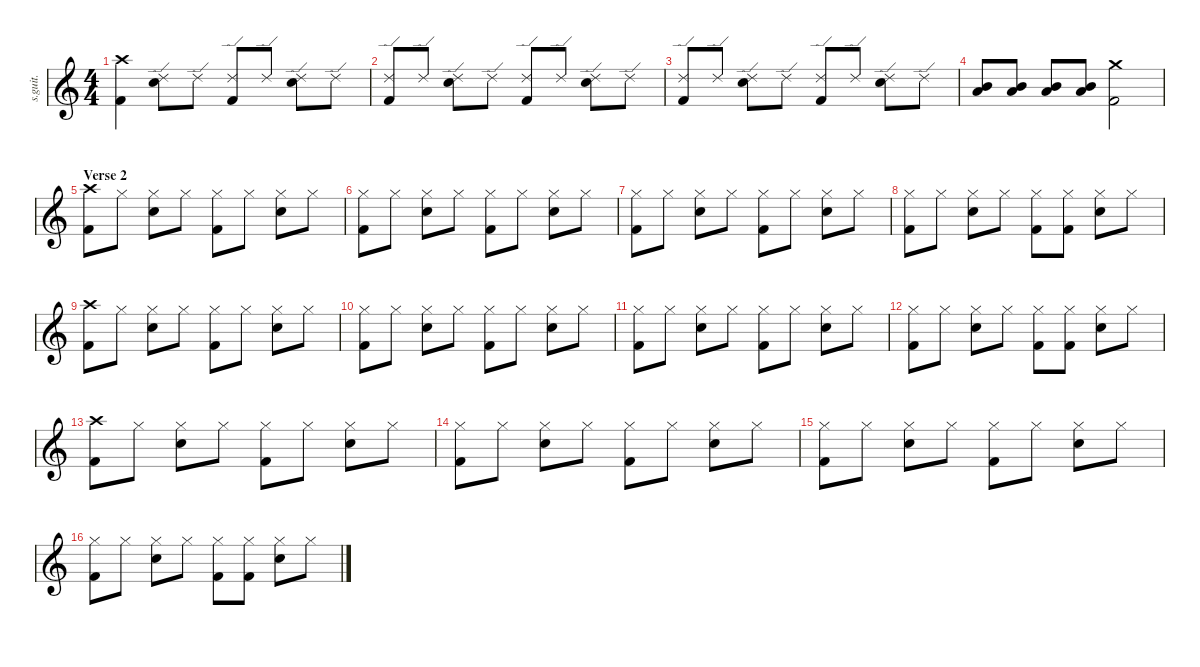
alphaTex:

\defaultSystemsLayout 4
\hideDynamics
\bracketExtendMode nobrackets
\track ("Nick Menza" "s.guit.") {instrument percussion}
\staff {score}
\articulation defaults
\ts (4 4)
\tempo (140 hide)
\clef g2
\ks c
("Crash high (hit)" "Kick (hit) 2").4{lyrics (0 "") lyrics (1 "") lyrics (2 "") lyrics (3 "") lyrics (4 "") dy f} ("Ride (edge) 2" "Snare (hit) 2").8{lyrics (0 "") lyrics (1 "") lyrics (2 "") lyrics (3 "") lyrics (4 "")} "Ride (edge) 2".8{lyrics (0 "") lyrics (1 "") lyrics (2 "") lyrics (3 "") lyrics (4 "")} ("Ride (edge) 2" "Kick (hit) 2").8{lyrics (0 "") lyrics (1 "") lyrics (2 "") lyrics (3 "") lyrics (4 "")} "Ride (edge) 2".8{lyrics (0 "") lyrics (1 "") lyrics (2 "") lyrics (3 "") lyrics (4 "")} ("Ride (edge) 2" "Snare (hit) 2").8{lyrics (0 "") lyrics (1 "") lyrics (2 "") lyrics (3 "") lyrics (4 "")} "Ride (edge) 2".8{lyrics (0 "") lyrics (1 "") lyrics (2 "") lyrics (3 "") lyrics (4 "")} |
("Ride (edge) 2" "Kick (hit) 2").8{lyrics (0 "") lyrics (1 "") lyrics (2 "") lyrics (3 "") lyrics (4 "")} "Ride (edge) 2".8{lyrics (0 "") lyrics (1 "") lyrics (2 "") lyrics (3 "") lyrics (4 "")} ("Ride (edge) 2" "Snare (hit) 2").8{lyrics (0 "") lyrics (1 "") lyrics (2 "") lyrics (3 "") lyrics (4 "")} "Ride (edge) 2".8{lyrics (0 "") lyrics (1 "") lyrics (2 "") lyrics (3 "") lyrics (4 "")} ("Ride (edge) 2" "Kick (hit) 2").8{lyrics (0 "") lyrics (1 "") lyrics (2 "") lyrics (3 "") lyrics (4 "")} "Ride (edge) 2".8{lyrics (0 "") lyrics (1 "") lyrics (2 "") lyrics (3 "") lyrics (4 "")} ("Ride (edge) 2" "Snare (hit) 2").8{lyrics (0 "") lyrics (1 "") lyrics (2 "") lyrics (3 "") lyrics (4 "")} "Ride (edge) 2".8{lyrics (0 "") lyrics (1 "") lyrics (2 "") lyrics (3 "") lyrics (4 "")} |
("Ride (edge) 2" "Kick (hit) 2").8{lyrics (0 "") lyrics (1 "") lyrics (2 "") lyrics (3 "") lyrics (4 "")} "Ride (edge) 2".8{lyrics (0 "") lyrics (1 "") lyrics (2 "") lyrics (3 "") lyrics (4 "")} ("Ride (edge) 2" "Snare (hit) 2").8{lyrics (0 "") lyrics (1 "") lyrics (2 "") lyrics (3 "") lyrics (4 "")} "Ride (edge) 2".8{lyrics (0 "") lyrics (1 "") lyrics (2 "") lyrics (3 "") lyrics (4 "")} ("Ride (edge) 2" "Kick (hit) 2").8{lyrics (0 "") lyrics (1 "") lyrics (2 "") lyrics (3 "") lyrics (4 "")} "Ride (edge) 2".8{lyrics (0 "") lyrics (1 "") lyrics (2 "") lyrics (3 "") lyrics (4 "")} ("Ride (edge) 2" "Snare (hit) 2").8{lyrics (0 "") lyrics (1 "") lyrics (2 "") lyrics (3 "") lyrics (4 "")} "Ride (edge) 2".8{lyrics (0 "") lyrics (1 "") lyrics (2 "") lyrics (3 "") lyrics (4 "")} |
("Mid Tom (hit)" "Low Tom (hit)").8{lyrics (0 "") lyrics (1 "") lyrics (2 "") lyrics (3 "") lyrics (4 "")} ("Mid Tom (hit)" "Low Tom (hit)").8{lyrics (0 "") lyrics (1 "") lyrics (2 "") lyrics (3 "") lyrics (4 "")} ("Mid Tom (hit)" "Low Tom (hit)").8{lyrics (0 "") lyrics (1 "") lyrics (2 "") lyrics (3 "") lyrics (4 "")} ("Mid Tom (hit)" "Low Tom (hit)").8{lyrics (0 "") lyrics (1 "") lyrics (2 "") lyrics (3 "") lyrics (4 "")} ("Crash medium (hit)" "Kick (hit) 2").2{lyrics (0 "") lyrics (1 "") lyrics (2 "") lyrics (3 "") lyrics (4 "")} |
\section ("" "Verse 2")
("Crash high (hit)" "Kick (hit) 2").8{lyrics (0 "") lyrics (1 "") lyrics (2 "") lyrics (3 "") lyrics (4 "")} "Hi-Hat (closed)".8{lyrics (0 "") lyrics (1 "") lyrics (2 "") lyrics (3 "") lyrics (4 "")} ("Hi-Hat (closed)" "Snare (hit) 2").8{lyrics (0 "") lyrics (1 "") lyrics (2 "") lyrics (3 "") lyrics (4 "")} "Hi-Hat (closed)".8{lyrics (0 "") lyrics (1 "") lyrics (2 "") lyrics (3 "") lyrics (4 "")} ("Hi-Hat (closed)" "Kick (hit) 2").8{lyrics (0 "") lyrics (1 "") lyrics (2 "") lyrics (3 "") lyrics (4 "")} "Hi-Hat (closed)".8{lyrics (0 "") lyrics (1 "") lyrics (2 "") lyrics (3 "") lyrics (4 "")} ("Hi-Hat (closed)" "Snare (hit) 2").8{lyrics (0 "") lyrics (1 "") lyrics (2 "") lyrics (3 "") lyrics (4 "")} "Hi-Hat (closed)".8{lyrics (0 "") lyrics (1 "") lyrics (2 "") lyrics (3 "") lyrics (4 "")} |
("Hi-Hat (closed)" "Kick (hit) 2").8{lyrics (0 "") lyrics (1 "") lyrics (2 "") lyrics (3 "") lyrics (4 "")} "Hi-Hat (closed)".8{lyrics (0 "") lyrics (1 "") lyrics (2 "") lyrics (3 "") lyrics (4 "")} ("Hi-Hat (closed)" "Snare (hit) 2").8{lyrics (0 "") lyrics (1 "") lyrics (2 "") lyrics (3 "") lyrics (4 "")} "Hi-Hat (closed)".8{lyrics (0 "") lyrics (1 "") lyrics (2 "") lyrics (3 "") lyrics (4 "")} ("Hi-Hat (closed)" "Kick (hit) 2").8{lyrics (0 "") lyrics (1 "") lyrics (2 "") lyrics (3 "") lyrics (4 "")} "Hi-Hat (closed)".8{lyrics (0 "") lyrics (1 "") lyrics (2 "") lyrics (3 "") lyrics (4 "")} ("Hi-Hat (closed)" "Snare (hit) 2").8{lyrics (0 "") lyrics (1 "") lyrics (2 "") lyrics (3 "") lyrics (4 "")} "Hi-Hat (closed)".8{lyrics (0 "") lyrics (1 "") lyrics (2 "") lyrics (3 "") lyrics (4 "")} |
("Hi-Hat (closed)" "Kick (hit) 2").8{lyrics (0 "") lyrics (1 "") lyrics (2 "") lyrics (3 "") lyrics (4 "")} "Hi-Hat (closed)".8{lyrics (0 "") lyrics (1 "") lyrics (2 "") lyrics (3 "") lyrics (4 "")} ("Hi-Hat (closed)" "Snare (hit) 2").8{lyrics (0 "") lyrics (1 "") lyrics (2 "") lyrics (3 "") lyrics (4 "")} "Hi-Hat (closed)".8{lyrics (0 "") lyrics (1 "") lyrics (2 "") lyrics (3 "") lyrics (4 "")} ("Hi-Hat (closed)" "Kick (hit) 2").8{lyrics (0 "") lyrics (1 "") lyrics (2 "") lyrics (3 "") lyrics (4 "")} "Hi-Hat (closed)".8{lyrics (0 "") lyrics (1 "") lyrics (2 "") lyrics (3 "") lyrics (4 "")} ("Hi-Hat (closed)" "Snare (hit) 2").8{lyrics (0 "") lyrics (1 "") lyrics (2 "") lyrics (3 "") lyrics (4 "")} "Hi-Hat (closed)".8{lyrics (0 "") lyrics (1 "") lyrics (2 "") lyrics (3 "") lyrics (4 "")} |
("Hi-Hat (closed)" "Kick (hit) 2").8{lyrics (0 "") lyrics (1 "") lyrics (2 "") lyrics (3 "") lyrics (4 "")} "Hi-Hat (closed)".8{lyrics (0 "") lyrics (1 "") lyrics (2 "") lyrics (3 "") lyrics (4 "")} ("Hi-Hat (closed)" "Snare (hit) 2").8{lyrics (0 "") lyrics (1 "") lyrics (2 "") lyrics (3 "") lyrics (4 "")} "Hi-Hat (closed)".8{lyrics (0 "") lyrics (1 "") lyrics (2 "") lyrics (3 "") lyrics (4 "")} ("Hi-Hat (closed)" "Kick (hit) 2").8{lyrics (0 "") lyrics (1 "") lyrics (2 "") lyrics (3 "") lyrics (4 "")} ("Hi-Hat (closed)" "Kick (hit) 2").8{lyrics (0 "") lyrics (1 "") lyrics (2 "") lyrics (3 "") lyrics (4 "")} ("Hi-Hat (closed)" "Snare (hit) 2").8{lyrics (0 "") lyrics (1 "") lyrics (2 "") lyrics (3 "") lyrics (4 "")} "Hi-Hat (closed)".8{lyrics (0 "") lyrics (1 "") lyrics (2 "") lyrics (3 "") lyrics (4 "")} |
("Crash high (hit)" "Kick (hit) 2").8{lyrics (0 "") lyrics (1 "") lyrics (2 "") lyrics (3 "") lyrics (4 "")} "Hi-Hat (closed)".8{lyrics (0 "") lyrics (1 "") lyrics (2 "") lyrics (3 "") lyrics (4 "")} ("Hi-Hat (closed)" "Snare (hit) 2").8{lyrics (0 "") lyrics (1 "") lyrics (2 "") lyrics (3 "") lyrics (4 "")} "Hi-Hat (closed)".8{lyrics (0 "") lyrics (1 "") lyrics (2 "") lyrics (3 "") lyrics (4 "")} ("Hi-Hat (closed)" "Kick (hit) 2").8{lyrics (0 "") lyrics (1 "") lyrics (2 "") lyrics (3 "") lyrics (4 "")} "Hi-Hat (closed)".8{lyrics (0 "") lyrics (1 "") lyrics (2 "") lyrics (3 "") lyrics (4 "")} ("Hi-Hat (closed)" "Snare (hit) 2").8{lyrics (0 "") lyrics (1 "") lyrics (2 "") lyrics (3 "") lyrics (4 "")} "Hi-Hat (closed)".8{lyrics (0 "") lyrics (1 "") lyrics (2 "") lyrics (3 "") lyrics (4 "")} |
("Hi-Hat (closed)" "Kick (hit) 2").8{lyrics (0 "") lyrics (1 "") lyrics (2 "") lyrics (3 "") lyrics (4 "")} "Hi-Hat (closed)".8{lyrics (0 "") lyrics (1 "") lyrics (2 "") lyrics (3 "") lyrics (4 "")} ("Hi-Hat (closed)" "Snare (hit) 2").8{lyrics (0 "") lyrics (1 "") lyrics (2 "") lyrics (3 "") lyrics (4 "")} "Hi-Hat (closed)".8{lyrics (0 "") lyrics (1 "") lyrics (2 "") lyrics (3 "") lyrics (4 "")} ("Hi-Hat (closed)" "Kick (hit) 2").8{lyrics (0 "") lyrics (1 "") lyrics (2 "") lyrics (3 "") lyrics (4 "")} "Hi-Hat (closed)".8{lyrics (0 "") lyrics (1 "") lyrics (2 "") lyrics (3 "") lyrics (4 "")} ("Hi-Hat (closed)" "Snare (hit) 2").8{lyrics (0 "") lyrics (1 "") lyrics (2 "") lyrics (3 "") lyrics (4 "")} "Hi-Hat (closed)".8{lyrics (0 "") lyrics (1 "") lyrics (2 "") lyrics (3 "") lyrics (4 "")} |
("Hi-Hat (closed)" "Kick (hit) 2").8{lyrics (0 "") lyrics (1 "") lyrics (2 "") lyrics (3 "") lyrics (4 "")} "Hi-Hat (closed)".8{lyrics (0 "") lyrics (1 "") lyrics (2 "") lyrics (3 "") lyrics (4 "")} ("Hi-Hat (closed)" "Snare (hit) 2").8{lyrics (0 "") lyrics (1 "") lyrics (2 "") lyrics (3 "") lyrics (4 "")} "Hi-Hat (closed)".8{lyrics (0 "") lyrics (1 "") lyrics (2 "") lyrics (3 "") lyrics (4 "")} ("Hi-Hat (closed)" "Kick (hit) 2").8{lyrics (0 "") lyrics (1 "") lyrics (2 "") lyrics (3 "") lyrics (4 "")} "Hi-Hat (closed)".8{lyrics (0 "") lyrics (1 "") lyrics (2 "") lyrics (3 "") lyrics (4 "")} ("Hi-Hat (closed)" "Snare (hit) 2").8{lyrics (0 "") lyrics (1 "") lyrics (2 "") lyrics (3 "") lyrics (4 "")} "Hi-Hat (closed)".8{lyrics (0 "") lyrics (1 "") lyrics (2 "") lyrics (3 "") lyrics (4 "")} |
("Hi-Hat (closed)" "Kick (hit) 2").8{lyrics (0 "") lyrics (1 "") lyrics (2 "") lyrics (3 "") lyrics (4 "")} "Hi-Hat (closed)".8{lyrics (0 "") lyrics (1 "") lyrics (2 "") lyrics (3 "") lyrics (4 "")} ("Hi-Hat (closed)" "Snare (hit) 2").8{lyrics (0 "") lyrics (1 "") lyrics (2 "") lyrics (3 "") lyrics (4 "")} "Hi-Hat (closed)".8{lyrics (0 "") lyrics (1 "") lyrics (2 "") lyrics (3 "") lyrics (4 "")} ("Hi-Hat (closed)" "Kick (hit) 2").8{lyrics (0 "") lyrics (1 "") lyrics (2 "") lyrics (3 "") lyrics (4 "")} ("Hi-Hat (closed)" "Kick (hit) 2").8{lyrics (0 "") lyrics (1 "") lyrics (2 "") lyrics (3 "") lyrics (4 "")} ("Hi-Hat (closed)" "Snare (hit) 2").8{lyrics (0 "") lyrics (1 "") lyrics (2 "") lyrics (3 "") lyrics (4 "")} "Hi-Hat (closed)".8{lyrics (0 "") lyrics (1 "") lyrics (2 "") lyrics (3 "") lyrics (4 "")} |
("Crash high (hit)" "Kick (hit) 2").8{lyrics (0 "") lyrics (1 "") lyrics (2 "") lyrics (3 "") lyrics (4 "")} "Hi-Hat (closed)".8{lyrics (0 "") lyrics (1 "") lyrics (2 "") lyrics (3 "") lyrics (4 "")} ("Hi-Hat (closed)" "Snare (hit) 2").8{lyrics (0 "") lyrics (1 "") lyrics (2 "") lyrics (3 "") lyrics (4 "")} "Hi-Hat (closed)".8{lyrics (0 "") lyrics (1 "") lyrics (2 "") lyrics (3 "") lyrics (4 "")} ("Hi-Hat (closed)" "Kick (hit) 2").8{lyrics (0 "") lyrics (1 "") lyrics (2 "") lyrics (3 "") lyrics (4 "")} "Hi-Hat (closed)".8{lyrics (0 "") lyrics (1 "") lyrics (2 "") lyrics (3 "") lyrics (4 "")} ("Hi-Hat (closed)" "Snare (hit) 2").8{lyrics (0 "") lyrics (1 "") lyrics (2 "") lyrics (3 "") lyrics (4 "")} "Hi-Hat (closed)".8{lyrics (0 "") lyrics (1 "") lyrics (2 "") lyrics (3 "") lyrics (4 "")} |
("Hi-Hat (closed)" "Kick (hit) 2").8{lyrics (0 "") lyrics (1 "") lyrics (2 "") lyrics (3 "") lyrics (4 "")} "Hi-Hat (closed)".8{lyrics (0 "") lyrics (1 "") lyrics (2 "") lyrics (3 "") lyrics (4 "")} ("Hi-Hat (closed)" "Snare (hit) 2").8{lyrics (0 "") lyrics (1 "") lyrics (2 "") lyrics (3 "") lyrics (4 "")} "Hi-Hat (closed)".8{lyrics (0 "") lyrics (1 "") lyrics (2 "") lyrics (3 "") lyrics (4 "")} ("Hi-Hat (closed)" "Kick (hit) 2").8{lyrics (0 "") lyrics (1 "") lyrics (2 "") lyrics (3 "") lyrics (4 "")} "Hi-Hat (closed)".8{lyrics (0 "") lyrics (1 "") lyrics (2 "") lyrics (3 "") lyrics (4 "")} ("Hi-Hat (closed)" "Snare (hit) 2").8{lyrics (0 "") lyrics (1 "") lyrics (2 "") lyrics (3 "") lyrics (4 "")} "Hi-Hat (closed)".8{lyrics (0 "") lyrics (1 "") lyrics (2 "") lyrics (3 "") lyrics (4 "")} |
("Hi-Hat (closed)" "Kick (hit) 2").8{lyrics (0 "") lyrics (1 "") lyrics (2 "") lyrics (3 "") lyrics (4 "")} "Hi-Hat (closed)".8{lyrics (0 "") lyrics (1 "") lyrics (2 "") lyrics (3 "") lyrics (4 "")} ("Hi-Hat (closed)" "Snare (hit) 2").8{lyrics (0 "") lyrics (1 "") lyrics (2 "") lyrics (3 "") lyrics (4 "")} "Hi-Hat (closed)".8{lyrics (0 "") lyrics (1 "") lyrics (2 "") lyrics (3 "") lyrics (4 "")} ("Hi-Hat (closed)" "Kick (hit) 2").8{lyrics (0 "") lyrics (1 "") lyrics (2 "") lyrics (3 "") lyrics (4 "")} "Hi-Hat (closed)".8{lyrics (0 "") lyrics (1 "") lyrics (2 "") lyrics (3 "") lyrics (4 "")} ("Hi-Hat (closed)" "Snare (hit) 2").8{lyrics (0 "") lyrics (1 "") lyrics (2 "") lyrics (3 "") lyrics (4 "")} "Hi-Hat (closed)".8{lyrics (0 "") lyrics (1 "") lyrics (2 "") lyrics (3 "") lyrics (4 "")} |
("Hi-Hat (closed)" "Kick (hit) 2").8{lyrics (0 "") lyrics (1 "") lyrics (2 "") lyrics (3 "") lyrics (4 "")} "Hi-Hat (closed)".8{lyrics (0 "") lyrics (1 "") lyrics (2 "") lyrics (3 "") lyrics (4 "")} ("Hi-Hat (closed)" "Snare (hit) 2").8{lyrics (0 "") lyrics (1 "") lyrics (2 "") lyrics (3 "") lyrics (4 "")} "Hi-Hat (closed)".8{lyrics (0 "") lyrics (1 "") lyrics (2 "") lyrics (3 "") lyrics (4 "")} ("Hi-Hat (closed)" "Kick (hit) 2").8{lyrics (0 "") lyrics (1 "") lyrics (2 "") lyrics (3 "") lyrics (4 "")} ("Hi-Hat (closed)" "Kick (hit) 2").8{lyrics (0 "") lyrics (1 "") lyrics (2 "") lyrics (3 "") lyrics (4 "")} ("Hi-Hat (closed)" "Snare (hit) 2").8{lyrics (0 "") lyrics (1 "") lyrics (2 "") lyrics (3 "") lyrics (4 "")} "Hi-Hat (closed)".8{lyrics (0 "") lyrics (1 "") lyrics (2 "") lyrics (3 "") lyrics (4 "")}
